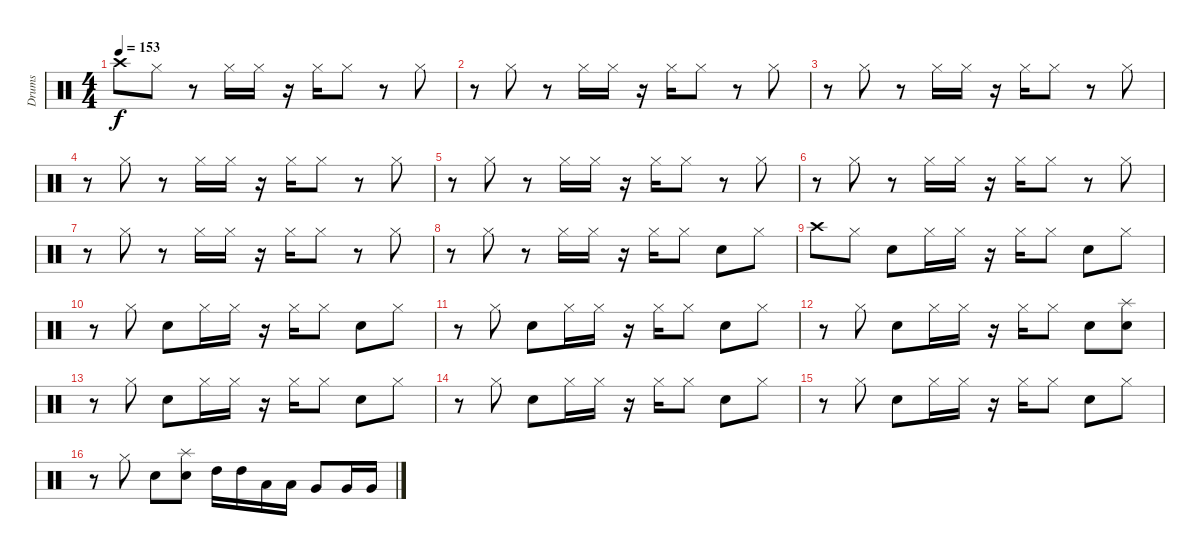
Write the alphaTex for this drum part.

\track ("Drums" "Drums") {instrument percussion}
\staff {score}
\articulation defaults
\ts (4 4)
\tempo 153
\clef neutral
\ks c "Crash high (hit)".8{dy f} "Hi-Hat (closed)".8
r.8 "Hi-Hat (closed)".16 "Hi-Hat (closed)".16 r.16 "Hi-Hat (closed)".16 "Hi-Hat (closed)".8 r.8 "Hi-Hat (closed)".8 |
r.8 "Hi-Hat (closed)".8 r.8 "Hi-Hat (closed)".16 "Hi-Hat (closed)".16 r.16 "Hi-Hat (closed)".16 "Hi-Hat (closed)".8 r.8 "Hi-Hat (closed)".8 |
r.8 "Hi-Hat (closed)".8 r.8 "Hi-Hat (closed)".16 "Hi-Hat (closed)".16 r.16 "Hi-Hat (closed)".16 "Hi-Hat (closed)".8 r.8 "Hi-Hat (closed)".8 |
r.8 "Hi-Hat (closed)".8 r.8 "Hi-Hat (closed)".16 "Hi-Hat (closed)".16 r.16 "Hi-Hat (closed)".16 "Hi-Hat (closed)".8 r.8 "Hi-Hat (closed)".8 |
r.8 "Hi-Hat (closed)".8 r.8 "Hi-Hat (closed)".16 "Hi-Hat (closed)".16 r.16 "Hi-Hat (closed)".16 "Hi-Hat (closed)".8 r.8 "Hi-Hat (closed)".8 |
r.8 "Hi-Hat (closed)".8 r.8 "Hi-Hat (closed)".16 "Hi-Hat (closed)".16 r.16 "Hi-Hat (closed)".16 "Hi-Hat (closed)".8 r.8 "Hi-Hat (closed)".8 |
r.8 "Hi-Hat (closed)".8 r.8 "Hi-Hat (closed)".16 "Hi-Hat (closed)".16 r.16 "Hi-Hat (closed)".16 "Hi-Hat (closed)".8 r.8 "Hi-Hat (closed)".8 |
r.8 "Hi-Hat (closed)".8 r.8 "Hi-Hat (closed)".16 "Hi-Hat (closed)".16 r.16 "Hi-Hat (closed)".16 "Hi-Hat (closed)".8 "Snare (hit) 2".8 "Hi-Hat (closed)".8 |
"Crash high (hit)".8 "Hi-Hat (closed)".8 "Snare (hit) 2".8 "Hi-Hat (closed)".16 "Hi-Hat (closed)".16 r.16 "Hi-Hat (closed)".16 "Hi-Hat (closed)".8 "Snare (hit) 2".8 "Hi-Hat (closed)".8 |
r.8 "Hi-Hat (closed)".8 "Snare (hit) 2".8 "Hi-Hat (closed)".16 "Hi-Hat (closed)".16 r.16 "Hi-Hat (closed)".16 "Hi-Hat (closed)".8 "Snare (hit) 2".8 "Hi-Hat (closed)".8 |
r.8 "Hi-Hat (closed)".8 "Snare (hit) 2".8 "Hi-Hat (closed)".16 "Hi-Hat (closed)".16 r.16 "Hi-Hat (closed)".16 "Hi-Hat (closed)".8 "Snare (hit) 2".8 "Hi-Hat (closed)".8 |
r.8 "Hi-Hat (closed)".8 "Snare (hit) 2".8 "Hi-Hat (closed)".16 "Hi-Hat (closed)".16 r.16 "Hi-Hat (closed)".16 "Hi-Hat (closed)".8 "Snare (hit) 2".8 ("Splash (hit)" "Snare (hit) 2").8 |
r.8 "Hi-Hat (closed)".8 "Snare (hit) 2".8 "Hi-Hat (closed)".16 "Hi-Hat (closed)".16 r.16 "Hi-Hat (closed)".16 "Hi-Hat (closed)".8 "Snare (hit) 2".8 "Hi-Hat (closed)".8 |
r.8 "Hi-Hat (closed)".8 "Snare (hit) 2".8 "Hi-Hat (closed)".16 "Hi-Hat (closed)".16 r.16 "Hi-Hat (closed)".16 "Hi-Hat (closed)".8 "Snare (hit) 2".8 "Hi-Hat (closed)".8 |
r.8 "Hi-Hat (closed)".8 "Snare (hit) 2".8 "Hi-Hat (closed)".16 "Hi-Hat (closed)".16 r.16 "Hi-Hat (closed)".16 "Hi-Hat (closed)".8 "Snare (hit) 2".8 "Hi-Hat (closed)".8 |
r.8 "Hi-Hat (closed)".8 "Snare (hit) 2".8 ("Splash (hit)" "Snare (hit) 2").8 "High Tom (hit)".16 "High Tom (hit)".16 "Low Tom (hit)".16 "Low Tom (hit)".16 "Very Low Tom (hit)".8 "Very Low Tom (hit)".16 "Very Low Tom (hit)".16
